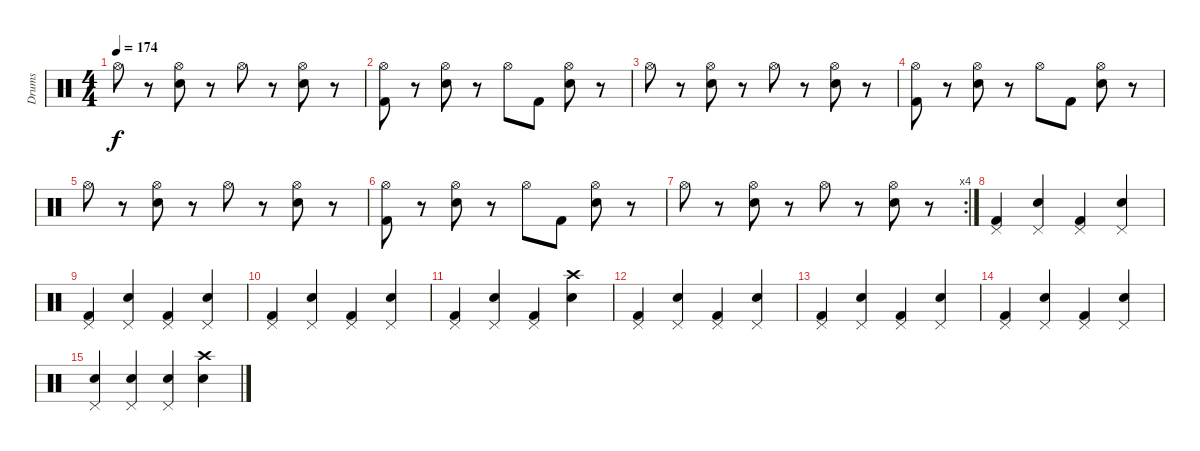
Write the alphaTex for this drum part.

\track ("Drums" "Drums") {instrument percussion}
\staff {score}
\articulation defaults
\ts (4 4)
\tempo 174
\clef neutral
\ks c "Hi-Hat (open)".8{dy f}
r.8 ("Hi-Hat (open)" "Snare (hit) 2").8 r.8 "Hi-Hat (open)".8 r.8 ("Hi-Hat (open)" "Snare (hit) 2").8 r.8 |
("Hi-Hat (open)" "Kick (hit) 2").8 r.8 ("Hi-Hat (open)" "Snare (hit) 2").8 r.8 "Hi-Hat (open)".8 "Kick (hit) 2".8 ("Hi-Hat (open)" "Snare (hit) 2").8 r.8 |
"Hi-Hat (open)".8 r.8 ("Hi-Hat (open)" "Snare (hit) 2").8 r.8 "Hi-Hat (open)".8 r.8 ("Hi-Hat (open)" "Snare (hit) 2").8 r.8 |
("Hi-Hat (open)" "Kick (hit) 2").8 r.8 ("Hi-Hat (open)" "Snare (hit) 2").8 r.8 "Hi-Hat (open)".8 "Kick (hit) 2".8 ("Hi-Hat (open)" "Snare (hit) 2").8 r.8 |
"Hi-Hat (open)".8 r.8 ("Hi-Hat (open)" "Snare (hit) 2").8 r.8 "Hi-Hat (open)".8 r.8 ("Hi-Hat (open)" "Snare (hit) 2").8 r.8 |
("Hi-Hat (open)" "Kick (hit) 2").8 r.8 ("Hi-Hat (open)" "Snare (hit) 2").8 r.8 "Hi-Hat (open)".8 "Kick (hit) 2".8 ("Hi-Hat (open)" "Snare (hit) 2").8 r.8 |
\rc 4 "Hi-Hat (open)".8
r.8 ("Hi-Hat (open)" "Snare (hit) 2").8 r.8 "Hi-Hat (open)".8 r.8 ("Hi-Hat (open)" "Snare (hit) 2").8 r.8 |
("Pedal Hi-Hat (hit)" "Kick (hit) 2").4 ("Pedal Hi-Hat (hit)" "Snare (hit) 2").4 ("Pedal Hi-Hat (hit)" "Kick (hit) 2").4 ("Pedal Hi-Hat (hit)" "Snare (hit) 2").4 |
("Pedal Hi-Hat (hit)" "Kick (hit) 2").4 ("Pedal Hi-Hat (hit)" "Snare (hit) 2").4 ("Pedal Hi-Hat (hit)" "Kick (hit) 2").4 ("Pedal Hi-Hat (hit)" "Snare (hit) 2").4 |
("Pedal Hi-Hat (hit)" "Kick (hit) 2").4 ("Pedal Hi-Hat (hit)" "Snare (hit) 2").4 ("Pedal Hi-Hat (hit)" "Kick (hit) 2").4 ("Pedal Hi-Hat (hit)" "Snare (hit) 2").4 |
("Pedal Hi-Hat (hit)" "Kick (hit) 2").4 ("Pedal Hi-Hat (hit)" "Snare (hit) 2").4 ("Pedal Hi-Hat (hit)" "Kick (hit) 2").4 ("Crash high (hit)" "Snare (hit) 2").4 |
("Pedal Hi-Hat (hit)" "Kick (hit) 2").4 ("Pedal Hi-Hat (hit)" "Snare (hit) 2").4 ("Pedal Hi-Hat (hit)" "Kick (hit) 2").4 ("Pedal Hi-Hat (hit)" "Snare (hit) 2").4 |
("Pedal Hi-Hat (hit)" "Kick (hit) 2").4 ("Pedal Hi-Hat (hit)" "Snare (hit) 2").4 ("Pedal Hi-Hat (hit)" "Kick (hit) 2").4 ("Pedal Hi-Hat (hit)" "Snare (hit) 2").4 |
("Pedal Hi-Hat (hit)" "Kick (hit) 2").4 ("Pedal Hi-Hat (hit)" "Snare (hit) 2").4 ("Pedal Hi-Hat (hit)" "Kick (hit) 2").4 ("Pedal Hi-Hat (hit)" "Snare (hit) 2").4 |
("Pedal Hi-Hat (hit)" "Snare (hit) 2").4 ("Pedal Hi-Hat (hit)" "Snare (hit) 2").4 ("Pedal Hi-Hat (hit)" "Snare (hit) 2").4 ("Crash high (hit)" "Snare (hit) 2").4
